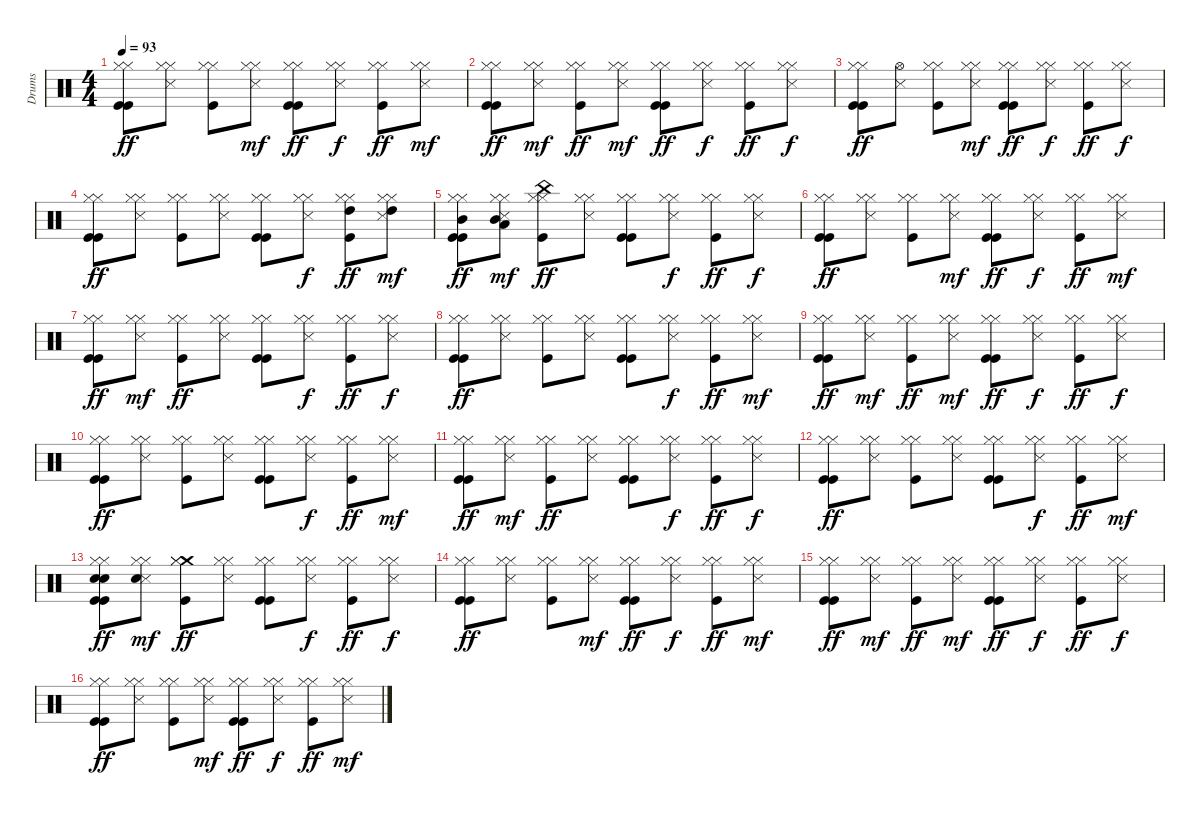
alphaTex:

\track ("Drums" "Drums") {instrument percussion}
\staff {score}
\articulation defaults
\ts (4 4)
\tempo 93
\clef neutral
\ks c
("Kick (hit)" "Hi-Hat (closed)" "Kick (hit)" "Hi-Hat (closed)").8{dy ff} ("Hi-Hat (closed)" "Snare (side stick) 3" "Hi-Hat (closed)").8 ("Hi-Hat (closed)" "Kick (hit)" "Hi-Hat (closed)").8 ("Hi-Hat (closed)" "Snare (side stick) 3" "Hi-Hat (closed)").8{dy mf} ("Kick (hit)" "Hi-Hat (closed)" "Kick (hit)" "Hi-Hat (closed)").8{dy ff} ("Hi-Hat (closed)" "Snare (side stick) 3" "Hi-Hat (closed)").8{dy f} ("Hi-Hat (closed)" "Kick (hit)" "Hi-Hat (closed)").8{dy ff} ("Snare (side stick) 3" "Hi-Hat (closed)" "Hi-Hat (closed)").8{dy mf} |
("Kick (hit)" "Hi-Hat (closed)" "Kick (hit)" "Hi-Hat (closed)").8{dy ff} ("Hi-Hat (closed)" "Snare (side stick) 3" "Hi-Hat (closed)").8{dy mf} ("Hi-Hat (closed)" "Kick (hit)" "Hi-Hat (closed)").8{dy ff} ("Hi-Hat (closed)" "Snare (side stick) 3" "Hi-Hat (closed)").8{dy mf} ("Kick (hit)" "Hi-Hat (closed)" "Kick (hit)" "Hi-Hat (closed)").8{dy ff} ("Hi-Hat (closed)" "Snare (side stick) 3" "Hi-Hat (closed)").8{dy f} ("Hi-Hat (closed)" "Kick (hit)" "Hi-Hat (closed)").8{dy ff} ("Hi-Hat (closed)" "Snare (side stick) 3" "Hi-Hat (closed)").8{dy f} |
("Kick (hit)" "Hi-Hat (closed)" "Kick (hit)" "Hi-Hat (closed)").8{dy ff} ("Hi-Hat (open)" "Snare (side stick) 3").8 ("Hi-Hat (closed)" "Kick (hit)" "Hi-Hat (closed)").8 ("Hi-Hat (closed)" "Snare (side stick) 3" "Hi-Hat (closed)").8{dy mf} ("Kick (hit)" "Hi-Hat (closed)" "Kick (hit)" "Hi-Hat (closed)").8{dy ff} ("Snare (side stick) 3" "Hi-Hat (closed)" "Hi-Hat (closed)").8{dy f} ("Hi-Hat (closed)" "Kick (hit)" "Hi-Hat (closed)").8{dy ff} ("Hi-Hat (closed)" "Snare (side stick) 3" "Hi-Hat (closed)").8{dy f} |
("Kick (hit)" "Hi-Hat (closed)" "Kick (hit)" "Hi-Hat (closed)").8{dy ff} ("Hi-Hat (closed)" "Snare (side stick) 3" "Hi-Hat (closed)").8 ("Hi-Hat (closed)" "Kick (hit)" "Hi-Hat (closed)").8 ("Snare (side stick) 3" "Hi-Hat (closed)" "Hi-Hat (closed)").8 ("Kick (hit)" "Hi-Hat (closed)" "Kick (hit)" "Hi-Hat (closed)").8 ("Snare (side stick) 3" "Hi-Hat (closed)" "Hi-Hat (closed)").8{dy f} ("Hi-Hat (closed)" "Kick (hit)" "High Tom (hit)" "Hi-Hat (closed)").8{dy ff} ("High Tom (hit)" "Hi-Hat (closed)" "Snare (side stick) 3" "Hi-Hat (closed)").8{dy mf} |
("Kick (hit)" "Hi-Hat (closed)" "Kick (hit)" "Hi-Hat (closed)" "Mid Tom (hit)").8{dy ff} ("Hi-Hat (closed)" "Snare (side stick) 3" "Mid Tom (hit)" "Hi-Hat (closed)" "Low Tom (hit)").8{dy mf} ("Hi-Hat (closed)" "China (hit)" "Kick (hit)" "Hi-Hat (closed)").8{dy ff} ("Snare (side stick) 3" "Hi-Hat (closed)" "Hi-Hat (closed)").8 ("Kick (hit)" "Hi-Hat (closed)" "Kick (hit)" "Hi-Hat (closed)").8 ("Snare (side stick) 3" "Hi-Hat (closed)" "Hi-Hat (closed)").8{dy f} ("Hi-Hat (closed)" "Kick (hit)" "Hi-Hat (closed)").8{dy ff} ("Hi-Hat (closed)" "Snare (side stick) 3" "Hi-Hat (closed)").8{dy f} |
("Kick (hit)" "Hi-Hat (closed)" "Kick (hit)" "Hi-Hat (closed)").8{dy ff} ("Snare (side stick) 3" "Hi-Hat (closed)" "Hi-Hat (closed)").8 ("Hi-Hat (closed)" "Kick (hit)" "Hi-Hat (closed)").8 ("Hi-Hat (closed)" "Snare (side stick) 3" "Hi-Hat (closed)").8{dy mf} ("Kick (hit)" "Hi-Hat (closed)" "Kick (hit)" "Hi-Hat (closed)").8{dy ff} ("Hi-Hat (closed)" "Snare (side stick) 3" "Hi-Hat (closed)").8{dy f} ("Hi-Hat (closed)" "Kick (hit)" "Hi-Hat (closed)").8{dy ff} ("Snare (side stick) 3" "Hi-Hat (closed)" "Hi-Hat (closed)").8{dy mf} |
("Kick (hit)" "Hi-Hat (closed)" "Kick (hit)" "Hi-Hat (closed)").8{dy ff} ("Hi-Hat (closed)" "Snare (side stick) 3" "Hi-Hat (closed)").8{dy mf} ("Hi-Hat (closed)" "Kick (hit)" "Hi-Hat (closed)").8{dy ff} ("Snare (side stick) 3" "Hi-Hat (closed)" "Hi-Hat (closed)").8 ("Kick (hit)" "Hi-Hat (closed)" "Kick (hit)" "Hi-Hat (closed)").8 ("Snare (side stick) 3" "Hi-Hat (closed)" "Hi-Hat (closed)").8{dy f} ("Hi-Hat (closed)" "Kick (hit)" "Hi-Hat (closed)").8{dy ff} ("Snare (side stick) 3" "Hi-Hat (closed)" "Hi-Hat (closed)").8{dy f} |
("Kick (hit)" "Hi-Hat (closed)" "Kick (hit)" "Hi-Hat (closed)").8{dy ff} ("Hi-Hat (closed)" "Snare (side stick) 3" "Hi-Hat (closed)").8 ("Hi-Hat (closed)" "Kick (hit)" "Hi-Hat (closed)").8 ("Snare (side stick) 3" "Hi-Hat (closed)" "Hi-Hat (closed)").8 ("Kick (hit)" "Hi-Hat (closed)" "Kick (hit)" "Hi-Hat (closed)").8 ("Snare (side stick) 3" "Hi-Hat (closed)" "Hi-Hat (closed)").8{dy f} ("Hi-Hat (closed)" "Kick (hit)" "Hi-Hat (closed)").8{dy ff} ("Snare (side stick) 3" "Hi-Hat (closed)" "Hi-Hat (closed)").8{dy mf} |
("Kick (hit)" "Hi-Hat (closed)" "Kick (hit)" "Hi-Hat (closed)").8{dy ff} ("Hi-Hat (closed)" "Snare (side stick) 3" "Hi-Hat (closed)").8{dy mf} ("Hi-Hat (closed)" "Kick (hit)" "Hi-Hat (closed)").8{dy ff} ("Hi-Hat (closed)" "Snare (side stick) 3" "Hi-Hat (closed)").8{dy mf} ("Kick (hit)" "Hi-Hat (closed)" "Kick (hit)" "Hi-Hat (closed)").8{dy ff} ("Hi-Hat (closed)" "Snare (side stick) 3" "Hi-Hat (closed)").8{dy f} ("Hi-Hat (closed)" "Kick (hit)" "Hi-Hat (closed)").8{dy ff} ("Snare (side stick) 3" "Hi-Hat (closed)" "Hi-Hat (closed)").8{dy f} |
("Kick (hit)" "Hi-Hat (closed)" "Kick (hit)" "Hi-Hat (closed)").8{dy ff} ("Snare (side stick) 3" "Hi-Hat (closed)" "Hi-Hat (closed)").8 ("Hi-Hat (closed)" "Kick (hit)" "Hi-Hat (closed)").8 ("Snare (side stick) 3" "Hi-Hat (closed)" "Hi-Hat (closed)").8 ("Kick (hit)" "Hi-Hat (closed)" "Kick (hit)" "Hi-Hat (closed)").8 ("Snare (side stick) 3" "Hi-Hat (closed)" "Hi-Hat (closed)").8{dy f} ("Hi-Hat (closed)" "Kick (hit)" "Hi-Hat (closed)").8{dy ff} ("Snare (side stick) 3" "Hi-Hat (closed)" "Hi-Hat (closed)").8{dy mf} |
("Kick (hit)" "Hi-Hat (closed)" "Kick (hit)" "Hi-Hat (closed)").8{dy ff} ("Hi-Hat (closed)" "Snare (side stick) 3" "Hi-Hat (closed)").8{dy mf} ("Hi-Hat (closed)" "Kick (hit)" "Hi-Hat (closed)").8{dy ff} ("Snare (side stick) 3" "Hi-Hat (closed)" "Hi-Hat (closed)").8 ("Kick (hit)" "Hi-Hat (closed)" "Kick (hit)" "Hi-Hat (closed)").8 ("Hi-Hat (closed)" "Snare (side stick) 3" "Hi-Hat (closed)").8{dy f} ("Hi-Hat (closed)" "Kick (hit)" "Hi-Hat (closed)").8{dy ff} ("Hi-Hat (closed)" "Snare (side stick) 3" "Hi-Hat (closed)").8{dy f} |
("Kick (hit)" "Hi-Hat (closed)" "Kick (hit)" "Hi-Hat (closed)").8{dy ff} ("Snare (side stick) 3" "Hi-Hat (closed)" "Hi-Hat (closed)").8 ("Hi-Hat (closed)" "Kick (hit)" "Hi-Hat (closed)").8 ("Snare (side stick) 3" "Hi-Hat (closed)" "Hi-Hat (closed)").8 ("Kick (hit)" "Hi-Hat (closed)" "Kick (hit)" "Hi-Hat (closed)").8 ("Hi-Hat (closed)" "Snare (side stick) 3" "Hi-Hat (closed)").8{dy f} ("Hi-Hat (closed)" "Kick (hit)" "Hi-Hat (closed)").8{dy ff} ("Hi-Hat (closed)" "Snare (side stick) 3" "Hi-Hat (closed)").8{dy mf} |
("Kick (hit)" "Snare (hit) 2" "Hi-Hat (closed)" "Kick (hit)" "Snare (hit) 2" "Hi-Hat (closed)").8{dy ff} ("Snare (side stick) 3" "Hi-Hat (closed)" "Hi-Hat (closed)" "Electric Snare (hit)").8{dy mf} ("Crash medium (hit)" "Hi-Hat (closed)" "Kick (hit)" "Hi-Hat (closed)").8{dy ff} ("Snare (side stick) 3" "Hi-Hat (closed)" "Hi-Hat (closed)").8 ("Kick (hit)" "Hi-Hat (closed)" "Kick (hit)" "Hi-Hat (closed)").8 ("Snare (side stick) 3" "Hi-Hat (closed)" "Hi-Hat (closed)").8{dy f} ("Hi-Hat (closed)" "Kick (hit)" "Hi-Hat (closed)").8{dy ff} ("Snare (side stick) 3" "Hi-Hat (closed)" "Hi-Hat (closed)").8{dy f} |
("Kick (hit)" "Hi-Hat (closed)" "Kick (hit)" "Hi-Hat (closed)").8{dy ff} ("Snare (side stick) 3" "Hi-Hat (closed)" "Hi-Hat (closed)").8 ("Hi-Hat (closed)" "Kick (hit)" "Hi-Hat (closed)").8 ("Hi-Hat (closed)" "Snare (side stick) 3" "Hi-Hat (closed)").8{dy mf} ("Kick (hit)" "Hi-Hat (closed)" "Kick (hit)" "Hi-Hat (closed)").8{dy ff} ("Hi-Hat (closed)" "Snare (side stick) 3" "Hi-Hat (closed)").8{dy f} ("Hi-Hat (closed)" "Kick (hit)" "Hi-Hat (closed)").8{dy ff} ("Snare (side stick) 3" "Hi-Hat (closed)" "Hi-Hat (closed)").8{dy mf} |
("Kick (hit)" "Hi-Hat (closed)" "Kick (hit)" "Hi-Hat (closed)").8{dy ff} ("Hi-Hat (closed)" "Snare (side stick) 3" "Hi-Hat (closed)").8{dy mf} ("Hi-Hat (closed)" "Kick (hit)" "Hi-Hat (closed)").8{dy ff} ("Hi-Hat (closed)" "Snare (side stick) 3" "Hi-Hat (closed)").8{dy mf} ("Kick (hit)" "Hi-Hat (closed)" "Kick (hit)" "Hi-Hat (closed)").8{dy ff} ("Snare (side stick) 3" "Hi-Hat (closed)" "Hi-Hat (closed)").8{dy f} ("Hi-Hat (closed)" "Kick (hit)" "Hi-Hat (closed)").8{dy ff} ("Hi-Hat (closed)" "Snare (side stick) 3" "Hi-Hat (closed)").8{dy f} |
("Kick (hit)" "Hi-Hat (closed)" "Kick (hit)" "Hi-Hat (closed)").8{dy ff} ("Hi-Hat (closed)" "Snare (side stick) 3" "Hi-Hat (closed)").8 ("Hi-Hat (closed)" "Kick (hit)" "Hi-Hat (closed)").8 ("Hi-Hat (closed)" "Snare (side stick) 3" "Hi-Hat (closed)").8{dy mf} ("Kick (hit)" "Hi-Hat (closed)" "Kick (hit)" "Hi-Hat (closed)").8{dy ff} ("Snare (side stick) 3" "Hi-Hat (closed)" "Hi-Hat (closed)").8{dy f} ("Hi-Hat (closed)" "Kick (hit)" "Hi-Hat (closed)").8{dy ff} ("Snare (side stick) 3" "Hi-Hat (closed)" "Hi-Hat (closed)").8{dy mf}
